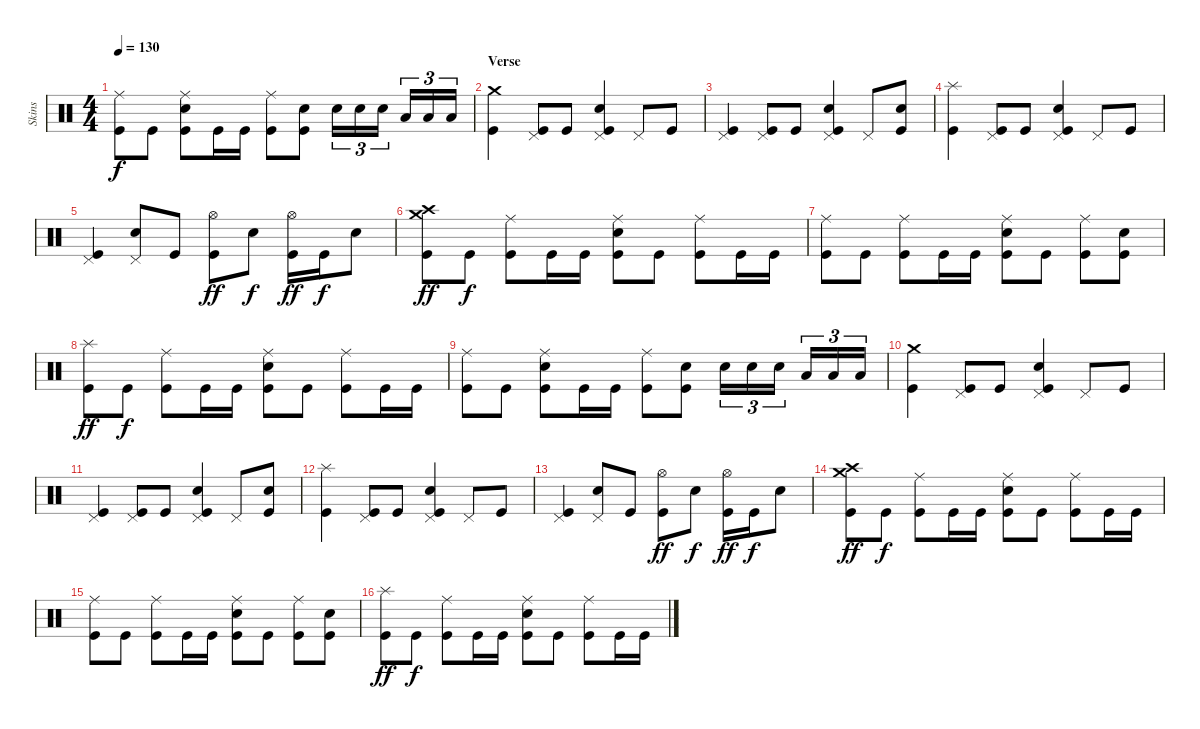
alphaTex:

\track ("Skins" "Skins") {instrument percussion}
\staff {score}
\articulation defaults
\ts (4 4)
\tempo 130
\clef neutral
\ks c
("Ride (middle)" "Kick (hit)").8{dy f volume 14} "Kick (hit)".8 ("Ride (middle)" "Electric Snare (hit)" "Kick (hit)").8 "Kick (hit)".16 "Kick (hit)".16 ("Ride (middle)" "Kick (hit)").8 ("Electric Snare (hit)" "Kick (hit)").8 "Electric Snare (hit)".16{tu (3 2)} "Electric Snare (hit)".16{tu (3 2)} "Electric Snare (hit)".16{tu (3 2)} "Low Tom (hit)".16{tu (3 2)} "Low Tom (hit)".16{tu (3 2)} "Low Tom (hit)".16{tu (3 2)} |
\section ("" "Verse")
("Crash medium (hit)" "Kick (hit)").4 ("Pedal Hi-Hat (hit)" "Kick (hit)").8 "Kick (hit)".8 ("Pedal Hi-Hat (hit)" "Electric Snare (hit)" "Kick (hit)").4 "Pedal Hi-Hat (hit)".8 "Kick (hit)".8 |
("Pedal Hi-Hat (hit)" "Kick (hit)").4 ("Pedal Hi-Hat (hit)" "Kick (hit)").8 "Kick (hit)".8 ("Pedal Hi-Hat (hit)" "Electric Snare (hit)" "Kick (hit)").4 "Pedal Hi-Hat (hit)".8 ("Electric Snare (hit)" "Kick (hit)").8 |
("Splash (hit)" "Kick (hit)").4 ("Pedal Hi-Hat (hit)" "Kick (hit)").8 "Kick (hit)".8 ("Pedal Hi-Hat (hit)" "Electric Snare (hit)" "Kick (hit)").4 "Pedal Hi-Hat (hit)".8 "Kick (hit)".8 |
("Pedal Hi-Hat (hit)" "Kick (hit)").4 ("Pedal Hi-Hat (hit)" "Electric Snare (hit)").8 "Kick (hit)".8 ("Hi-Hat (open)" "Kick (hit)").8{dy ff} "Electric Snare (hit)".8{dy f} ("Hi-Hat (open)" "Kick (hit)").16{dy ff} "Kick (hit)".16{dy f} "Electric Snare (hit)".8 |
("Crash high (hit)" "Crash medium (hit)" "Kick (hit)").8{dy ff} "Kick (hit)".8{dy f} ("Ride (middle)" "Kick (hit)").8 "Kick (hit)".16 "Kick (hit)".16 ("Ride (middle)" "Electric Snare (hit)" "Kick (hit)").8 "Kick (hit)".8 ("Ride (middle)" "Kick (hit)").8 "Kick (hit)".16 "Kick (hit)".16 |
("Ride (middle)" "Kick (hit)").8 "Kick (hit)".8 ("Ride (middle)" "Kick (hit)").8 "Kick (hit)".16 "Kick (hit)".16 ("Ride (middle)" "Electric Snare (hit)" "Kick (hit)").8 "Kick (hit)".8 ("Ride (middle)" "Kick (hit)").8 ("Electric Snare (hit)" "Kick (hit)").8 |
("Splash (hit)" "Kick (hit)").8{dy ff} "Kick (hit)".8{dy f} ("Ride (middle)" "Kick (hit)").8 "Kick (hit)".16 "Kick (hit)".16 ("Ride (middle)" "Electric Snare (hit)" "Kick (hit)").8 "Kick (hit)".8 ("Ride (middle)" "Kick (hit)").8 "Kick (hit)".16 "Kick (hit)".16 |
("Ride (middle)" "Kick (hit)").8 "Kick (hit)".8 ("Ride (middle)" "Electric Snare (hit)" "Kick (hit)").8 "Kick (hit)".16 "Kick (hit)".16 ("Ride (middle)" "Kick (hit)").8 ("Electric Snare (hit)" "Kick (hit)").8 "Electric Snare (hit)".16{tu (3 2)} "Electric Snare (hit)".16{tu (3 2)} "Electric Snare (hit)".16{tu (3 2)} "Low Tom (hit)".16{tu (3 2)} "Low Tom (hit)".16{tu (3 2)} "Low Tom (hit)".16{tu (3 2)} |
("Crash medium (hit)" "Kick (hit)").4 ("Pedal Hi-Hat (hit)" "Kick (hit)").8 "Kick (hit)".8 ("Pedal Hi-Hat (hit)" "Electric Snare (hit)" "Kick (hit)").4 "Pedal Hi-Hat (hit)".8 "Kick (hit)".8 |
("Pedal Hi-Hat (hit)" "Kick (hit)").4 ("Pedal Hi-Hat (hit)" "Kick (hit)").8 "Kick (hit)".8 ("Pedal Hi-Hat (hit)" "Electric Snare (hit)" "Kick (hit)").4 "Pedal Hi-Hat (hit)".8 ("Electric Snare (hit)" "Kick (hit)").8 |
("Splash (hit)" "Kick (hit)").4 ("Pedal Hi-Hat (hit)" "Kick (hit)").8 "Kick (hit)".8 ("Pedal Hi-Hat (hit)" "Electric Snare (hit)" "Kick (hit)").4 "Pedal Hi-Hat (hit)".8 "Kick (hit)".8 |
("Pedal Hi-Hat (hit)" "Kick (hit)").4 ("Pedal Hi-Hat (hit)" "Electric Snare (hit)").8 "Kick (hit)".8 ("Hi-Hat (open)" "Kick (hit)").8{dy ff} "Electric Snare (hit)".8{dy f} ("Hi-Hat (open)" "Kick (hit)").16{dy ff} "Kick (hit)".16{dy f} "Electric Snare (hit)".8 |
("Crash high (hit)" "Crash medium (hit)" "Kick (hit)").8{dy ff} "Kick (hit)".8{dy f} ("Ride (middle)" "Kick (hit)").8 "Kick (hit)".16 "Kick (hit)".16 ("Ride (middle)" "Electric Snare (hit)" "Kick (hit)").8 "Kick (hit)".8 ("Ride (middle)" "Kick (hit)").8 "Kick (hit)".16 "Kick (hit)".16 |
("Ride (middle)" "Kick (hit)").8 "Kick (hit)".8 ("Ride (middle)" "Kick (hit)").8 "Kick (hit)".16 "Kick (hit)".16 ("Ride (middle)" "Electric Snare (hit)" "Kick (hit)").8 "Kick (hit)".8 ("Ride (middle)" "Kick (hit)").8 ("Electric Snare (hit)" "Kick (hit)").8 |
("Splash (hit)" "Kick (hit)").8{dy ff} "Kick (hit)".8{dy f} ("Ride (middle)" "Kick (hit)").8 "Kick (hit)".16 "Kick (hit)".16 ("Ride (middle)" "Electric Snare (hit)" "Kick (hit)").8 "Kick (hit)".8 ("Ride (middle)" "Kick (hit)").8 "Kick (hit)".16 "Kick (hit)".16
